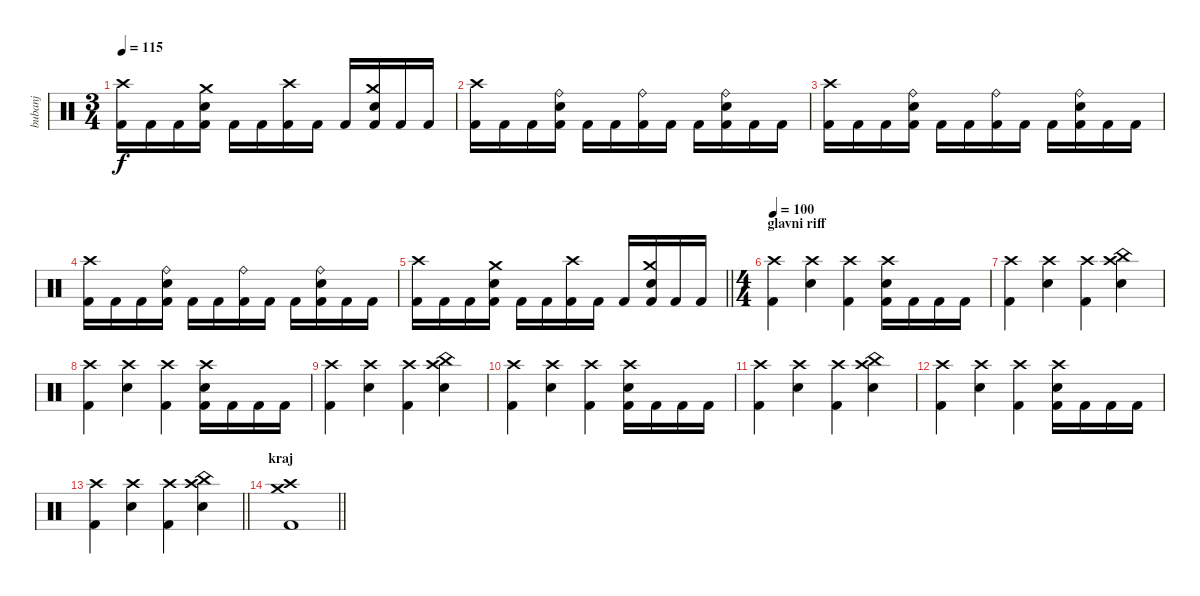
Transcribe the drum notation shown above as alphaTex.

\track ("bubanj" "bubanj") {instrument percussion}
\staff {score}
\articulation defaults
\ts (3 4)
\tempo 115
\clef neutral
\ks c
("Crash high (hit)" "Kick (hit) 2").16{dy f} "Kick (hit) 2".16 "Kick (hit) 2".16 ("Crash medium (hit)" "Electric Snare (hit)" "Kick (hit) 2").16 "Kick (hit) 2".16 "Kick (hit) 2".16 ("Crash high (hit)" "Kick (hit) 2").16 "Kick (hit) 2".16 "Kick (hit) 2".16 ("Crash medium (hit)" "Electric Snare (hit)" "Kick (hit) 2").16 "Kick (hit) 2".16 "Kick (hit) 2".16 |
("Crash high (hit)" "Kick (hit) 2").16 "Kick (hit) 2".16 "Kick (hit) 2".16 ("Ride (bell)" "Electric Snare (hit)" "Kick (hit) 2").16 "Kick (hit) 2".16 "Kick (hit) 2".16 ("Ride (bell)" "Kick (hit) 2").16 "Kick (hit) 2".16 "Kick (hit) 2".16 ("Ride (bell)" "Electric Snare (hit)" "Kick (hit) 2").16 "Kick (hit) 2".16 "Kick (hit) 2".16 |
("Crash high (hit)" "Kick (hit) 2").16 "Kick (hit) 2".16 "Kick (hit) 2".16 ("Ride (bell)" "Electric Snare (hit)" "Kick (hit) 2").16 "Kick (hit) 2".16 "Kick (hit) 2".16 ("Ride (bell)" "Kick (hit) 2").16 "Kick (hit) 2".16 "Kick (hit) 2".16 ("Ride (bell)" "Electric Snare (hit)" "Kick (hit) 2").16 "Kick (hit) 2".16 "Kick (hit) 2".16 |
("Crash high (hit)" "Kick (hit) 2").16 "Kick (hit) 2".16 "Kick (hit) 2".16 ("Ride (bell)" "Electric Snare (hit)" "Kick (hit) 2").16 "Kick (hit) 2".16 "Kick (hit) 2".16 ("Ride (bell)" "Kick (hit) 2").16 "Kick (hit) 2".16 "Kick (hit) 2".16 ("Ride (bell)" "Electric Snare (hit)" "Kick (hit) 2").16 "Kick (hit) 2".16 "Kick (hit) 2".16 |
\barLineRight lightlight
("Crash high (hit)" "Kick (hit) 2").16 "Kick (hit) 2".16 "Kick (hit) 2".16 ("Crash medium (hit)" "Electric Snare (hit)" "Kick (hit) 2").16 "Kick (hit) 2".16 "Kick (hit) 2".16 ("Crash high (hit)" "Kick (hit) 2").16 "Kick (hit) 2".16 "Kick (hit) 2".16 ("Crash medium (hit)" "Electric Snare (hit)" "Kick (hit) 2").16 "Kick (hit) 2".16 "Kick (hit) 2".16 |
\ts (4 4)
\section ("" "glavni riff")
\tempo 100
("Crash high (hit)" "Kick (hit) 2").4 ("Crash high (hit)" "Electric Snare (hit)").4 ("Crash high (hit)" "Kick (hit) 2").4 ("Crash high (hit)" "Electric Snare (hit)" "Kick (hit) 2").16 "Kick (hit) 2".16 "Kick (hit) 2".16 "Kick (hit) 2".16 |
("Crash high (hit)" "Kick (hit) 2").4 ("Crash high (hit)" "Electric Snare (hit)").4 ("Crash high (hit)" "Kick (hit) 2").4 ("China (hit)" "Crash high (hit)" "Electric Snare (hit)").4 |
("Crash high (hit)" "Kick (hit) 2").4 ("Crash high (hit)" "Electric Snare (hit)").4 ("Crash high (hit)" "Kick (hit) 2").4 ("Crash high (hit)" "Electric Snare (hit)" "Kick (hit) 2").16 "Kick (hit) 2".16 "Kick (hit) 2".16 "Kick (hit) 2".16 |
("Crash high (hit)" "Kick (hit) 2").4 ("Crash high (hit)" "Electric Snare (hit)").4 ("Crash high (hit)" "Kick (hit) 2").4 ("China (hit)" "Crash high (hit)" "Electric Snare (hit)").4 |
("Crash high (hit)" "Kick (hit) 2").4 ("Crash high (hit)" "Electric Snare (hit)").4 ("Crash high (hit)" "Kick (hit) 2").4 ("Crash high (hit)" "Electric Snare (hit)" "Kick (hit) 2").16 "Kick (hit) 2".16 "Kick (hit) 2".16 "Kick (hit) 2".16 |
("Crash high (hit)" "Kick (hit) 2").4 ("Crash high (hit)" "Electric Snare (hit)").4 ("Crash high (hit)" "Kick (hit) 2").4 ("China (hit)" "Crash high (hit)" "Electric Snare (hit)").4 |
("Crash high (hit)" "Kick (hit) 2").4 ("Crash high (hit)" "Electric Snare (hit)").4 ("Crash high (hit)" "Kick (hit) 2").4 ("Crash high (hit)" "Electric Snare (hit)" "Kick (hit) 2").16 "Kick (hit) 2".16 "Kick (hit) 2".16 "Kick (hit) 2".16 |
\barLineRight lightlight
("Crash high (hit)" "Kick (hit) 2").4 ("Crash high (hit)" "Electric Snare (hit)").4 ("Crash high (hit)" "Kick (hit) 2").4 ("China (hit)" "Crash high (hit)" "Electric Snare (hit)").4 |
\section ("" "kraj")
\barLineRight lightlight
("Crash medium (hit)" "Crash high (hit)" "Kick (hit) 2").1
